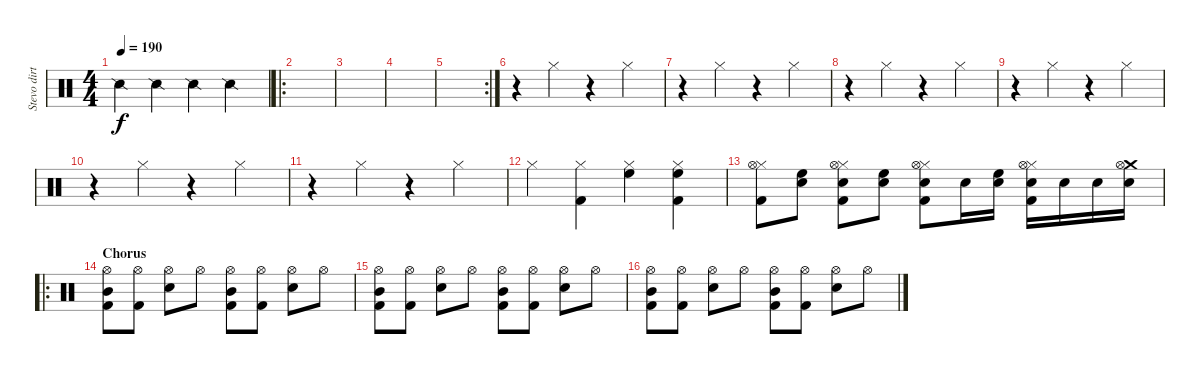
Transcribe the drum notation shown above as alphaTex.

\track ("Stevo dirty poo (drummer)" "Stevo dirt") {instrument percussion}
\staff {score}
\articulation defaults
\ts (4 4)
\tempo 190
\clef neutral
\ks c "Snare (side stick) 2".4{dy f} "Snare (side stick) 2".4 "Snare (side stick) 2".4 "Snare (side stick) 2".4
|
\ro
|
|
|
\rc 2
|
r.4 "Hi-Hat (closed)".4 r.4 "Hi-Hat (closed)".4 |
r.4 "Hi-Hat (closed)".4 r.4 "Hi-Hat (closed)".4 |
r.4 "Hi-Hat (closed)".4 r.4 "Hi-Hat (closed)".4 |
r.4 "Hi-Hat (closed)".4 r.4 "Hi-Hat (closed)".4 |
r.4 "Hi-Hat (closed)".4 r.4 "Hi-Hat (closed)".4 |
r.4 "Hi-Hat (closed)".4 r.4 "Hi-Hat (closed)".4 |
"Hi-Hat (closed)".4 ("Hi-Hat (closed)" "Kick (hit) 2").4 ("High Floor Tom (hit)" "Hi-Hat (closed)").4 ("High Floor Tom (hit)" "Hi-Hat (closed)" "Kick (hit) 2").4 |
("Hi-Hat (closed)" "Hi-Hat (open)" "Kick (hit) 2").8 ("High Floor Tom (hit)" "Snare (hit) 2").8 ("Hi-Hat (closed)" "Snare (hit) 2" "Hi-Hat (open)" "Kick (hit) 2").8 ("High Floor Tom (hit)" "Snare (hit) 2").8 ("Hi-Hat (closed)" "Snare (hit) 2" "Hi-Hat (open)" "Kick (hit) 2").8 "Snare (hit) 2".16 ("High Floor Tom (hit)" "Snare (hit) 2").16 ("Hi-Hat (closed)" "Snare (hit) 2" "Hi-Hat (open)" "Kick (hit) 2").16 "Snare (hit) 2".16 "Snare (hit) 2".16 ("Crash medium (hit)" "Snare (hit) 2" "Hi-Hat (open)").16 |
\ro
\section ("" "Chorus")
("Mid Tom (hit)" "Hi-Hat (open)" "Kick (hit) 2").8 ("Hi-Hat (open)" "Kick (hit) 2").8 ("Snare (hit) 2" "Hi-Hat (open)").8 "Hi-Hat (open)".8 ("Mid Tom (hit)" "Hi-Hat (open)" "Kick (hit) 2").8 ("Hi-Hat (open)" "Kick (hit) 2").8 ("Snare (hit) 2" "Hi-Hat (open)").8 "Hi-Hat (open)".8 |
("Mid Tom (hit)" "Hi-Hat (open)" "Kick (hit) 2").8 ("Hi-Hat (open)" "Kick (hit) 2").8 ("Snare (hit) 2" "Hi-Hat (open)").8 "Hi-Hat (open)".8 ("Mid Tom (hit)" "Hi-Hat (open)" "Kick (hit) 2").8 ("Hi-Hat (open)" "Kick (hit) 2").8 ("Snare (hit) 2" "Hi-Hat (open)").8 "Hi-Hat (open)".8 |
("Mid Tom (hit)" "Hi-Hat (open)" "Kick (hit) 2").8 ("Hi-Hat (open)" "Kick (hit) 2").8 ("Snare (hit) 2" "Hi-Hat (open)").8 "Hi-Hat (open)".8 ("Mid Tom (hit)" "Hi-Hat (open)" "Kick (hit) 2").8 ("Hi-Hat (open)" "Kick (hit) 2").8 ("Snare (hit) 2" "Hi-Hat (open)").8 "Hi-Hat (open)".8
